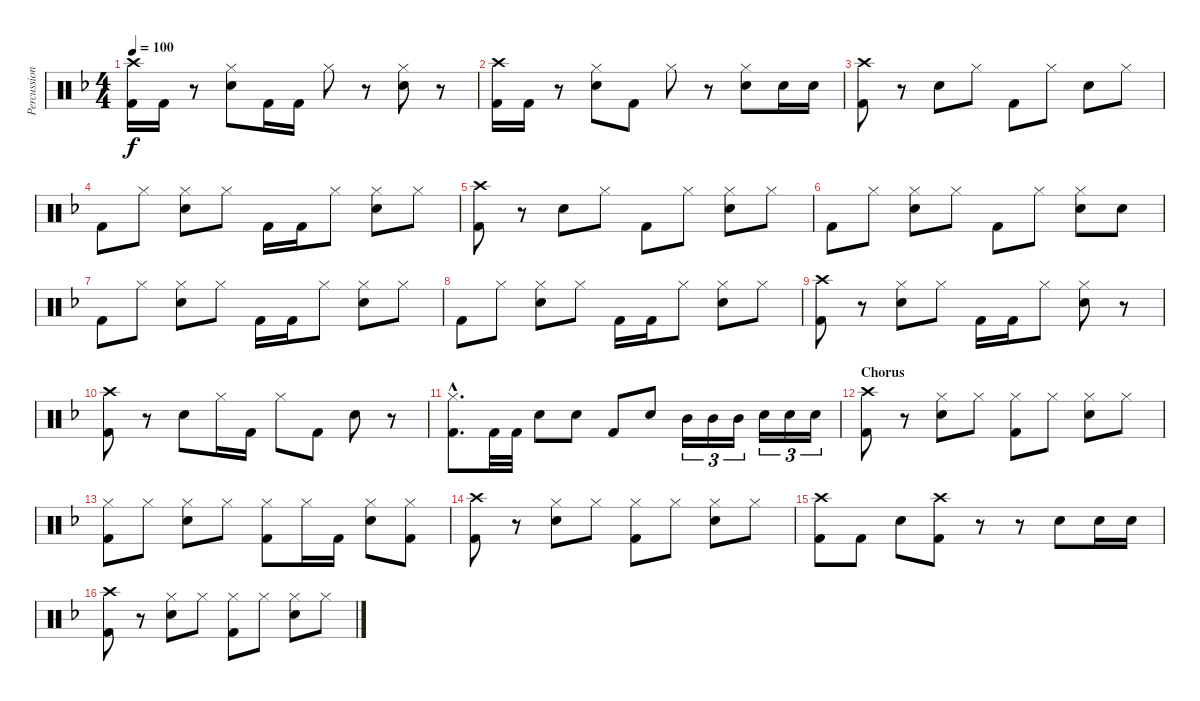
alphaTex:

\track ("Percussion" "Percussion") {instrument percussion}
\staff {score}
\articulation defaults
\ts (4 4)
\tempo 100
\clef neutral
\ks dminor
("Crash high (hit)" "Kick (hit) 2").16{dy f} "Kick (hit) 2".16 r.8 ("Hi-Hat (closed)" "Snare (hit) 2").8 "Kick (hit) 2".16 "Kick (hit) 2".16 "Hi-Hat (closed)".8 r.8 ("Hi-Hat (closed)" "Snare (hit) 2").8 r.8 |
("Crash high (hit)" "Kick (hit) 2").16 "Kick (hit) 2".16 r.8 ("Hi-Hat (closed)" "Snare (hit) 2").8 "Kick (hit) 2".8 "Hi-Hat (closed)".8 r.8 ("Hi-Hat (closed)" "Snare (hit) 2").8 "Snare (hit) 2".16 "Snare (hit) 2".16 |
("Crash high (hit)" "Kick (hit) 2").8 r.8 "Snare (hit) 2".8 "Hi-Hat (closed)".8 "Kick (hit) 2".8 "Hi-Hat (closed)".8 "Snare (hit) 2".8 "Hi-Hat (closed)".8 |
"Kick (hit) 2".8 "Hi-Hat (closed)".8 ("Hi-Hat (closed)" "Snare (hit) 2").8 "Hi-Hat (closed)".8 "Kick (hit) 2".16 "Kick (hit) 2".16 "Hi-Hat (closed)".8 ("Hi-Hat (closed)" "Snare (hit) 2").8 "Hi-Hat (closed)".8 |
("Crash high (hit)" "Kick (hit) 2").8 r.8 "Snare (hit) 2".8 "Hi-Hat (closed)".8 "Kick (hit) 2".8 "Hi-Hat (closed)".8 ("Hi-Hat (closed)" "Snare (hit) 2").8 "Hi-Hat (closed)".8 |
"Kick (hit) 2".8 "Hi-Hat (closed)".8 ("Hi-Hat (closed)" "Snare (hit) 2").8 "Hi-Hat (closed)".8 "Kick (hit) 2".8 "Hi-Hat (closed)".8 ("Hi-Hat (closed)" "Snare (hit) 2").8 "Snare (hit) 2".8 |
"Kick (hit) 2".8 "Hi-Hat (closed)".8 ("Hi-Hat (closed)" "Snare (hit) 2").8 "Hi-Hat (closed)".8 "Kick (hit) 2".16 "Kick (hit) 2".16 "Hi-Hat (closed)".8 ("Hi-Hat (closed)" "Snare (hit) 2").8 "Hi-Hat (closed)".8 |
"Kick (hit) 2".8 "Hi-Hat (closed)".8 ("Hi-Hat (closed)" "Snare (hit) 2").8 "Hi-Hat (closed)".8 "Kick (hit) 2".16 "Kick (hit) 2".16 "Hi-Hat (closed)".8 ("Hi-Hat (closed)" "Snare (hit) 2").8 "Hi-Hat (closed)".8 |
("Crash high (hit)" "Kick (hit) 2").8 r.8 ("Hi-Hat (closed)" "Snare (hit) 2").8 "Hi-Hat (closed)".8 "Kick (hit) 2".16 "Kick (hit) 2".16 "Hi-Hat (closed)".8 ("Hi-Hat (closed)" "Snare (hit) 2").8 r.8 |
("Crash high (hit)" "Kick (hit) 2").8 r.8 "Snare (hit) 2".8 "Hi-Hat (closed)".16 "Kick (hit) 2".16 "Hi-Hat (closed)".8 "Kick (hit) 2".8 "Snare (hit) 2".8 r.8 |
("Hi-Hat (closed)"{hac} "Kick (hit) 2"{hac}).8{d} "Kick (hit) 2".32 "Kick (hit) 2".32 "Snare (hit) 2".8 "Snare (hit) 2".8 "Kick (hit) 2".8 "Snare (hit) 2".8 "Mid Tom (hit)".16{tu (3 2)} "Mid Tom (hit)".16{tu (3 2)} "Mid Tom (hit)".16{tu (3 2)} "Snare (hit) 2".16{tu (3 2)} "Snare (hit) 2".16{tu (3 2)} "Snare (hit) 2".16{tu (3 2)} |
\section ("" "Chorus")
("Crash high (hit)" "Kick (hit) 2").8 r.8 ("Hi-Hat (closed)" "Snare (hit) 2").8 "Hi-Hat (closed)".8 ("Hi-Hat (closed)" "Kick (hit) 2").8 "Hi-Hat (closed)".8 ("Hi-Hat (closed)" "Snare (hit) 2").8 "Hi-Hat (closed)".8 |
("Hi-Hat (closed)" "Kick (hit) 2").8 "Hi-Hat (closed)".8 ("Hi-Hat (closed)" "Snare (hit) 2").8 "Hi-Hat (closed)".8 ("Hi-Hat (closed)" "Kick (hit) 2").8 "Hi-Hat (closed)".16 "Kick (hit) 2".16 ("Hi-Hat (closed)" "Snare (hit) 2").8 ("Hi-Hat (closed)" "Kick (hit) 2").8 |
("Crash high (hit)" "Kick (hit) 2").8 r.8 ("Hi-Hat (closed)" "Snare (hit) 2").8 "Hi-Hat (closed)".8 ("Hi-Hat (closed)" "Kick (hit) 2").8 "Hi-Hat (closed)".8 ("Hi-Hat (closed)" "Snare (hit) 2").8 "Hi-Hat (closed)".8 |
("Crash high (hit)" "Kick (hit) 2").8 "Kick (hit) 2".8 "Snare (hit) 2".8 ("Crash high (hit)" "Kick (hit) 2").8 r.8 r.8 "Snare (hit) 2".8 "Snare (hit) 2".16 "Snare (hit) 2".16 |
("Crash high (hit)" "Kick (hit) 2").8 r.8 ("Hi-Hat (closed)" "Snare (hit) 2").8 "Hi-Hat (closed)".8 ("Hi-Hat (closed)" "Kick (hit) 2").8 "Hi-Hat (closed)".8 ("Hi-Hat (closed)" "Snare (hit) 2").8 "Hi-Hat (closed)".8
